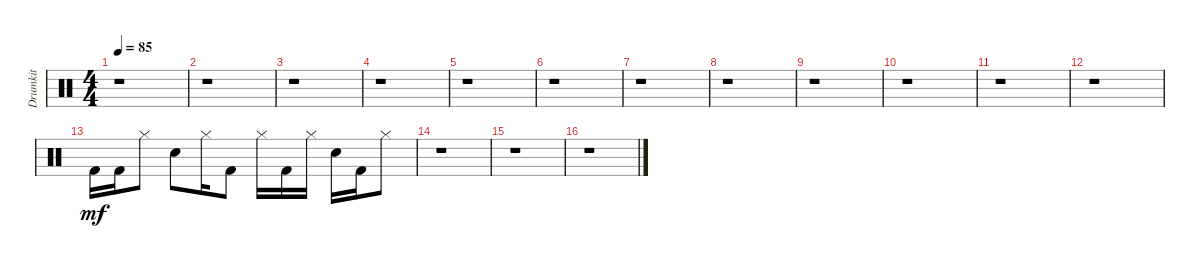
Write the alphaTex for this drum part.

\track ("Drumkit" "Drumkit") {instrument percussion}
\staff {score}
\articulation defaults
\ts (4 4)
\tempo 85
\clef neutral
\ks c
r.1{dy mf} |
r.1 |
r.1 |
r.1 |
r.1 |
r.1 |
r.1 |
r.1 |
r.1 |
r.1 |
r.1 |
r.1 |
"Kick (hit) 2".16 "Kick (hit) 2".16 "Hi-Hat (closed)".8 "Snare (hit) 2".8 "Hi-Hat (closed)".16 "Kick (hit) 2".8 "Hi-Hat (closed)".16 "Kick (hit) 2".16 "Hi-Hat (closed)".16 "Snare (hit) 2".16 "Kick (hit) 2".16 "Hi-Hat (closed)".8 |
r.1 |
r.1 |
r.1
